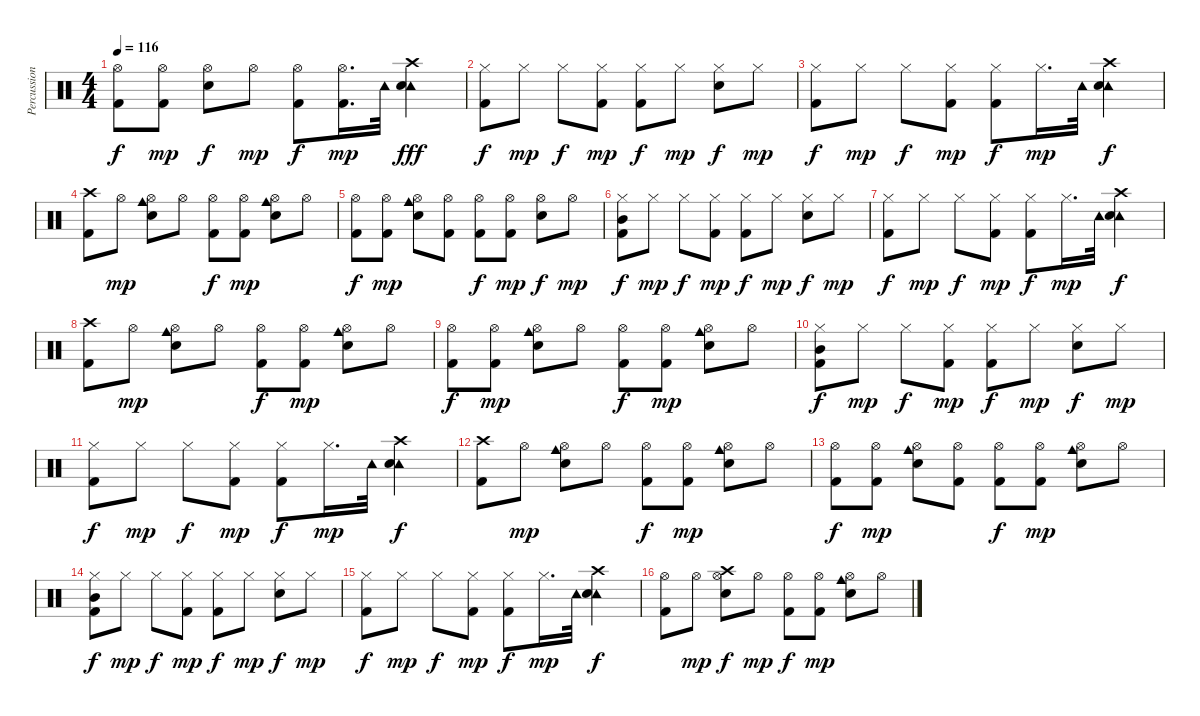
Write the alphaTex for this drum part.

\track ("Percussion (Peter)" "Percussion") {instrument percussion}
\staff {score}
\articulation defaults
\ts (4 4)
\tempo 116
\clef neutral
\ks c
("Hi-Hat (open)" "Kick (hit) 2").8{dy f} ("Hi-Hat (open)" "Kick (hit) 2").8{dy mp} ("Hi-Hat (open)" "Snare (hit) 2").8{dy f} "Hi-Hat (open)".8{dy mp} ("Hi-Hat (open)" "Kick (hit) 2").8{dy f} ("Hi-Hat (open)" "Kick (hit) 2").16{d dy mp} "Tambourine (hit)".32 ("Crash high (hit)" "Tambourine (hit)" "Snare (hit) 2").4{dy fff} |
("Hi-Hat (closed)" "Kick (hit) 2").8{dy f} "Hi-Hat (closed)".8{dy mp} "Hi-Hat (closed)".8{dy f} ("Hi-Hat (closed)" "Kick (hit) 2").8{dy mp} ("Hi-Hat (closed)" "Kick (hit) 2").8{dy f} "Hi-Hat (closed)".8{dy mp} ("Hi-Hat (closed)" "Snare (hit) 2").8{dy f} "Hi-Hat (closed)".8{dy mp} |
("Hi-Hat (closed)" "Kick (hit) 2").8{dy f} "Hi-Hat (closed)".8{dy mp} "Hi-Hat (closed)".8{dy f} ("Hi-Hat (closed)" "Kick (hit) 2").8{dy mp} ("Hi-Hat (closed)" "Kick (hit) 2").8{dy f} "Hi-Hat (closed)".16{d dy mp} "Tambourine (hit)".32 ("Crash high (hit)" "Tambourine (hit)" "Snare (hit) 2").4{dy f} |
("Crash high (hit)" "Kick (hit) 2").8 "Hi-Hat (open)".8{dy mp} ("Cowbell medium (hit)" "Hi-Hat (open)" "Snare (hit) 2").8 "Hi-Hat (open)".8 ("Hi-Hat (open)" "Kick (hit) 2").8{dy f} ("Hi-Hat (open)" "Kick (hit) 2").8{dy mp} ("Cowbell medium (hit)" "Hi-Hat (open)" "Snare (hit) 2").8 "Hi-Hat (open)".8 |
("Hi-Hat (open)" "Kick (hit) 2").8{dy f} ("Hi-Hat (open)" "Kick (hit) 2").8{dy mp} ("Cowbell medium (hit)" "Hi-Hat (open)" "Snare (hit) 2").8 ("Hi-Hat (open)" "Kick (hit) 2").8 ("Hi-Hat (open)" "Kick (hit) 2").8{dy f} ("Hi-Hat (open)" "Kick (hit) 2").8{dy mp} ("Hi-Hat (open)" "Snare (hit) 2").8{dy f} "Hi-Hat (open)".8{dy mp} |
("Hi-Hat (closed)" "Mid Tom (hit)" "Kick (hit) 2").8{dy f} "Hi-Hat (closed)".8{dy mp} "Hi-Hat (closed)".8{dy f} ("Hi-Hat (closed)" "Kick (hit) 2").8{dy mp} ("Hi-Hat (closed)" "Kick (hit) 2").8{dy f} "Hi-Hat (closed)".8{dy mp} ("Hi-Hat (closed)" "Snare (hit) 2").8{dy f} "Hi-Hat (closed)".8{dy mp} |
("Hi-Hat (closed)" "Kick (hit) 2").8{dy f} "Hi-Hat (closed)".8{dy mp} "Hi-Hat (closed)".8{dy f} ("Hi-Hat (closed)" "Kick (hit) 2").8{dy mp} ("Hi-Hat (closed)" "Kick (hit) 2").8{dy f} "Hi-Hat (closed)".16{d dy mp} "Tambourine (hit)".32 ("Crash high (hit)" "Tambourine (hit)" "Snare (hit) 2").4{dy f} |
("Crash high (hit)" "Kick (hit) 2").8 "Hi-Hat (open)".8{dy mp} ("Cowbell medium (hit)" "Hi-Hat (open)" "Snare (hit) 2").8 "Hi-Hat (open)".8 ("Hi-Hat (open)" "Kick (hit) 2").8{dy f} ("Hi-Hat (open)" "Kick (hit) 2").8{dy mp} ("Cowbell medium (hit)" "Hi-Hat (open)" "Snare (hit) 2").8 "Hi-Hat (open)".8 |
("Hi-Hat (open)" "Kick (hit) 2").8{dy f} ("Hi-Hat (open)" "Kick (hit) 2").8{dy mp} ("Cowbell medium (hit)" "Hi-Hat (open)" "Snare (hit) 2").8 "Hi-Hat (open)".8 ("Hi-Hat (open)" "Kick (hit) 2").8{dy f} ("Hi-Hat (open)" "Kick (hit) 2").8{dy mp} ("Cowbell medium (hit)" "Hi-Hat (open)" "Snare (hit) 2").8 "Hi-Hat (open)".8 |
("Hi-Hat (closed)" "Mid Tom (hit)" "Kick (hit) 2").8{dy f} "Hi-Hat (closed)".8{dy mp} "Hi-Hat (closed)".8{dy f} ("Hi-Hat (closed)" "Kick (hit) 2").8{dy mp} ("Hi-Hat (closed)" "Kick (hit) 2").8{dy f} "Hi-Hat (closed)".8{dy mp} ("Hi-Hat (closed)" "Snare (hit) 2").8{dy f} "Hi-Hat (closed)".8{dy mp} |
("Hi-Hat (closed)" "Kick (hit) 2").8{dy f} "Hi-Hat (closed)".8{dy mp} "Hi-Hat (closed)".8{dy f} ("Hi-Hat (closed)" "Kick (hit) 2").8{dy mp} ("Hi-Hat (closed)" "Kick (hit) 2").8{dy f} "Hi-Hat (closed)".16{d dy mp} "Tambourine (hit)".32 ("Crash high (hit)" "Tambourine (hit)" "Snare (hit) 2").4{dy f} |
("Crash high (hit)" "Kick (hit) 2").8 "Hi-Hat (open)".8{dy mp} ("Cowbell medium (hit)" "Hi-Hat (open)" "Snare (hit) 2").8 "Hi-Hat (open)".8 ("Hi-Hat (open)" "Kick (hit) 2").8{dy f} ("Hi-Hat (open)" "Kick (hit) 2").8{dy mp} ("Cowbell medium (hit)" "Hi-Hat (open)" "Snare (hit) 2").8 "Hi-Hat (open)".8 |
("Hi-Hat (open)" "Kick (hit) 2").8{dy f} ("Hi-Hat (open)" "Kick (hit) 2").8{dy mp} ("Cowbell medium (hit)" "Hi-Hat (open)" "Snare (hit) 2").8 ("Hi-Hat (open)" "Kick (hit) 2").8 ("Hi-Hat (open)" "Kick (hit) 2").8{dy f} ("Hi-Hat (open)" "Kick (hit) 2").8{dy mp} ("Cowbell medium (hit)" "Hi-Hat (open)" "Snare (hit) 2").8 "Hi-Hat (open)".8 |
("Hi-Hat (closed)" "Mid Tom (hit)" "Kick (hit) 2").8{dy f} "Hi-Hat (closed)".8{dy mp} "Hi-Hat (closed)".8{dy f} ("Hi-Hat (closed)" "Kick (hit) 2").8{dy mp} ("Hi-Hat (closed)" "Kick (hit) 2").8{dy f} "Hi-Hat (closed)".8{dy mp} ("Hi-Hat (closed)" "Snare (hit) 2").8{dy f} "Hi-Hat (closed)".8{dy mp} |
("Hi-Hat (closed)" "Kick (hit) 2").8{dy f} "Hi-Hat (closed)".8{dy mp} "Hi-Hat (closed)".8{dy f} ("Hi-Hat (closed)" "Kick (hit) 2").8{dy mp} ("Hi-Hat (closed)" "Kick (hit) 2").8{dy f} "Hi-Hat (closed)".16{d dy mp} "Tambourine (hit)".32 ("Crash high (hit)" "Tambourine (hit)" "Snare (hit) 2").4{dy f} |
("Hi-Hat (open)" "Kick (hit) 2").8 "Hi-Hat (open)".8{dy mp} ("Crash high (hit)" "Hi-Hat (open)" "Snare (hit) 2").8{dy f} "Hi-Hat (open)".8{dy mp} ("Hi-Hat (open)" "Kick (hit) 2").8{dy f} ("Hi-Hat (open)" "Kick (hit) 2").8{dy mp} ("Cowbell medium (hit)" "Hi-Hat (open)" "Snare (hit) 2").8 "Hi-Hat (open)".8
